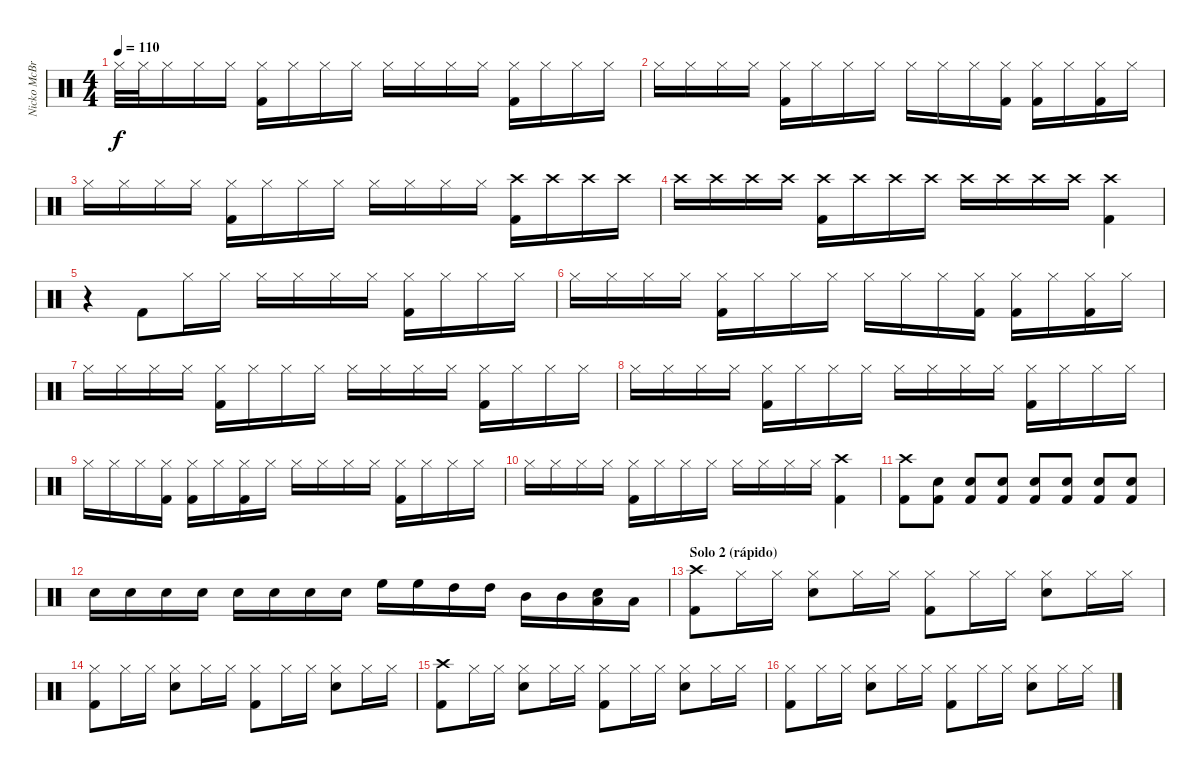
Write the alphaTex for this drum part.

\track ("Nicko McBrain" "Nicko McBr") {instrument percussion}
\staff {score}
\articulation defaults
\ts (4 4)
\tempo 110
\clef neutral
\ks c "Hi-Hat (closed)".32{dy f} "Hi-Hat (closed)".32 "Hi-Hat (closed)".16 "Hi-Hat (closed)".16 "Hi-Hat (closed)".16
("Hi-Hat (closed)" "Kick (hit) 2").16 "Hi-Hat (closed)".16 "Hi-Hat (closed)".16 "Hi-Hat (closed)".16 "Hi-Hat (closed)".16 "Hi-Hat (closed)".16 "Hi-Hat (closed)".16 "Hi-Hat (closed)".16 ("Hi-Hat (closed)" "Kick (hit) 2").16 "Hi-Hat (closed)".16 "Hi-Hat (closed)".16 "Hi-Hat (closed)".16 |
"Hi-Hat (closed)".16 "Hi-Hat (closed)".16 "Hi-Hat (closed)".16 "Hi-Hat (closed)".16 ("Hi-Hat (closed)" "Kick (hit) 2").16 "Hi-Hat (closed)".16 "Hi-Hat (closed)".16 "Hi-Hat (closed)".16 "Hi-Hat (closed)".16 "Hi-Hat (closed)".16 "Hi-Hat (closed)".16 ("Hi-Hat (closed)" "Kick (hit) 2").16 ("Hi-Hat (closed)" "Kick (hit) 2").16 "Hi-Hat (closed)".16 ("Hi-Hat (closed)" "Kick (hit) 2").16 "Hi-Hat (closed)".16 |
"Hi-Hat (closed)".16 "Hi-Hat (closed)".16 "Hi-Hat (closed)".16 "Hi-Hat (closed)".16 ("Hi-Hat (closed)" "Kick (hit) 2").16 "Hi-Hat (closed)".16 "Hi-Hat (closed)".16 "Hi-Hat (closed)".16 "Hi-Hat (closed)".16 "Hi-Hat (closed)".16 "Hi-Hat (closed)".16 "Hi-Hat (closed)".16 ("Crash high (hit)" "Kick (hit) 2").16 "Crash high (hit)".16 "Crash high (hit)".16 "Crash high (hit)".16 |
"Crash high (hit)".16 "Crash high (hit)".16 "Crash high (hit)".16 "Crash high (hit)".16 ("Crash high (hit)" "Kick (hit) 2").16 "Crash high (hit)".16 "Crash high (hit)".16 "Crash high (hit)".16 "Crash high (hit)".16 "Crash high (hit)".16 "Crash high (hit)".16 "Crash high (hit)".16 ("Crash high (hit)" "Kick (hit) 2").4 |
r.4 "Kick (hit) 2".8 "Hi-Hat (closed)".16 "Hi-Hat (closed)".16 "Hi-Hat (closed)".16 "Hi-Hat (closed)".16 "Hi-Hat (closed)".16 "Hi-Hat (closed)".16 ("Hi-Hat (closed)" "Kick (hit) 2").16 "Hi-Hat (closed)".16 "Hi-Hat (closed)".16 "Hi-Hat (closed)".16 |
"Hi-Hat (closed)".16 "Hi-Hat (closed)".16 "Hi-Hat (closed)".16 "Hi-Hat (closed)".16 ("Hi-Hat (closed)" "Kick (hit) 2").16 "Hi-Hat (closed)".16 "Hi-Hat (closed)".16 "Hi-Hat (closed)".16 "Hi-Hat (closed)".16 "Hi-Hat (closed)".16 "Hi-Hat (closed)".16 ("Hi-Hat (closed)" "Kick (hit) 2").16 ("Hi-Hat (closed)" "Kick (hit) 2").16 "Hi-Hat (closed)".16 ("Hi-Hat (closed)" "Kick (hit) 2").16 "Hi-Hat (closed)".16 |
"Hi-Hat (closed)".16 "Hi-Hat (closed)".16 "Hi-Hat (closed)".16 "Hi-Hat (closed)".16 ("Hi-Hat (closed)" "Kick (hit) 2").16 "Hi-Hat (closed)".16 "Hi-Hat (closed)".16 "Hi-Hat (closed)".16 "Hi-Hat (closed)".16 "Hi-Hat (closed)".16 "Hi-Hat (closed)".16 "Hi-Hat (closed)".16 ("Hi-Hat (closed)" "Kick (hit) 2").16 "Hi-Hat (closed)".16 "Hi-Hat (closed)".16 "Hi-Hat (closed)".16 |
"Hi-Hat (closed)".16 "Hi-Hat (closed)".16 "Hi-Hat (closed)".16 "Hi-Hat (closed)".16 ("Hi-Hat (closed)" "Kick (hit) 2").16 "Hi-Hat (closed)".16 "Hi-Hat (closed)".16 "Hi-Hat (closed)".16 "Hi-Hat (closed)".16 "Hi-Hat (closed)".16 "Hi-Hat (closed)".16 "Hi-Hat (closed)".16 ("Hi-Hat (closed)" "Kick (hit) 2").16 "Hi-Hat (closed)".16 "Hi-Hat (closed)".16 "Hi-Hat (closed)".16 |
"Hi-Hat (closed)".16 "Hi-Hat (closed)".16 "Hi-Hat (closed)".16 ("Hi-Hat (closed)" "Kick (hit) 2").16 ("Hi-Hat (closed)" "Kick (hit) 2").16 "Hi-Hat (closed)".16 ("Hi-Hat (closed)" "Kick (hit) 2").16 "Hi-Hat (closed)".16 "Hi-Hat (closed)".16 "Hi-Hat (closed)".16 "Hi-Hat (closed)".16 "Hi-Hat (closed)".16 ("Hi-Hat (closed)" "Kick (hit) 2").16 "Hi-Hat (closed)".16 "Hi-Hat (closed)".16 "Hi-Hat (closed)".16 |
"Hi-Hat (closed)".16 "Hi-Hat (closed)".16 "Hi-Hat (closed)".16 "Hi-Hat (closed)".16 ("Hi-Hat (closed)" "Kick (hit) 2").16 "Hi-Hat (closed)".16 "Hi-Hat (closed)".16 "Hi-Hat (closed)".16 "Hi-Hat (closed)".16 "Hi-Hat (closed)".16 "Hi-Hat (closed)".16 "Hi-Hat (closed)".16 ("Crash high (hit)" "Kick (hit) 2").4 |
("Crash high (hit)" "Kick (hit) 2").8 ("Kick (hit) 2" "Snare (hit) 2").8 ("Kick (hit) 2" "Snare (hit) 2").8 ("Kick (hit) 2" "Snare (hit) 2").8 ("Kick (hit) 2" "Snare (hit) 2").8 ("Kick (hit) 2" "Snare (hit) 2").8 ("Kick (hit) 2" "Snare (hit) 2").8 ("Kick (hit) 2" "Snare (hit) 2").8 |
"Snare (hit) 2".16 "Snare (hit) 2".16 "Snare (hit) 2".16 "Snare (hit) 2".16 "Snare (hit) 2".16 "Snare (hit) 2".16 "Snare (hit) 2".16 "Snare (hit) 2".16 "High Floor Tom (hit)".16 "High Floor Tom (hit)".16 "High Tom (hit)".16 "High Tom (hit)".16 "Mid Tom (hit)".16 "Mid Tom (hit)".16 ("Snare (hit) 2" "Low Tom (hit)").16 "Low Tom (hit)".16 |
\section ("" "Solo 2 (rápido)")
("Crash high (hit)" "Kick (hit) 2").8{volume 10} "Hi-Hat (closed)".16 "Hi-Hat (closed)".16 ("Hi-Hat (closed)" "Snare (hit) 2").8 "Hi-Hat (closed)".16 "Hi-Hat (closed)".16 ("Hi-Hat (closed)" "Kick (hit) 2").8 "Hi-Hat (closed)".16 "Hi-Hat (closed)".16 ("Hi-Hat (closed)" "Snare (hit) 2").8 "Hi-Hat (closed)".16 "Hi-Hat (closed)".16 |
("Hi-Hat (closed)" "Kick (hit) 2").8 "Hi-Hat (closed)".16 "Hi-Hat (closed)".16 ("Hi-Hat (closed)" "Snare (hit) 2").8 "Hi-Hat (closed)".16 "Hi-Hat (closed)".16 ("Hi-Hat (closed)" "Kick (hit) 2").8 "Hi-Hat (closed)".16 "Hi-Hat (closed)".16 ("Hi-Hat (closed)" "Snare (hit) 2").8 "Hi-Hat (closed)".16 "Hi-Hat (closed)".16 |
("Crash high (hit)" "Kick (hit) 2").8 "Hi-Hat (closed)".16 "Hi-Hat (closed)".16 ("Hi-Hat (closed)" "Snare (hit) 2").8 "Hi-Hat (closed)".16 "Hi-Hat (closed)".16 ("Hi-Hat (closed)" "Kick (hit) 2").8 "Hi-Hat (closed)".16 "Hi-Hat (closed)".16 ("Hi-Hat (closed)" "Snare (hit) 2").8 "Hi-Hat (closed)".16 "Hi-Hat (closed)".16 |
("Hi-Hat (closed)" "Kick (hit) 2").8 "Hi-Hat (closed)".16 "Hi-Hat (closed)".16 ("Hi-Hat (closed)" "Snare (hit) 2").8 "Hi-Hat (closed)".16 "Hi-Hat (closed)".16 ("Hi-Hat (closed)" "Kick (hit) 2").8 "Hi-Hat (closed)".16 "Hi-Hat (closed)".16 ("Hi-Hat (closed)" "Snare (hit) 2").8 "Hi-Hat (closed)".16 "Hi-Hat (closed)".16
